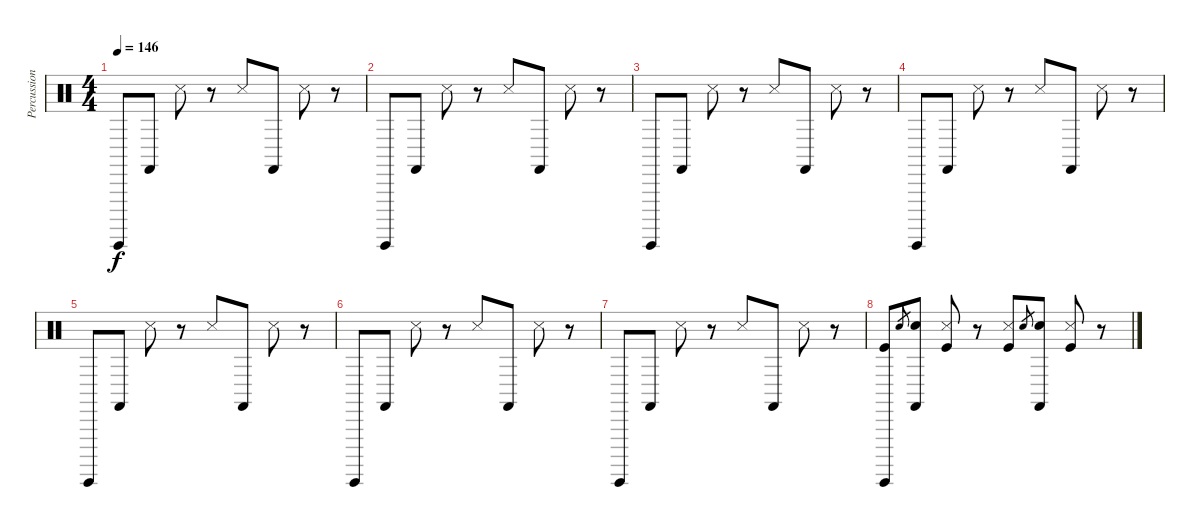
\track ("Percussion" "Percussion") {instrument percussion}
\staff {score}
\articulation defaults
\ts (4 4)
\tempo 146
\clef neutral
\ks c "Guiro (hit)".8{dy f} "Castanets (hit)".8 "Snare (side stick) 3".8
r.8 "Snare (side stick) 3".8 "Castanets (hit)".8 "Snare (side stick) 3".8 r.8 |
"Guiro (hit)".8 "Castanets (hit)".8 "Snare (side stick) 3".8 r.8 "Snare (side stick) 3".8 "Castanets (hit)".8 "Snare (side stick) 3".8 r.8 |
"Guiro (hit)".8 "Castanets (hit)".8 "Snare (side stick) 3".8 r.8 "Snare (side stick) 3".8 "Castanets (hit)".8 "Snare (side stick) 3".8 r.8 |
"Guiro (hit)".8 "Castanets (hit)".8 "Snare (side stick) 3".8 r.8 "Snare (side stick) 3".8 "Castanets (hit)".8 "Snare (side stick) 3".8 r.8 |
"Guiro (hit)".8 "Castanets (hit)".8 "Snare (side stick) 3".8 r.8 "Snare (side stick) 3".8 "Castanets (hit)".8 "Snare (side stick) 3".8 r.8 |
"Guiro (hit)".8 "Castanets (hit)".8 "Snare (side stick) 3".8 r.8 "Snare (side stick) 3".8 "Castanets (hit)".8 "Snare (side stick) 3".8 r.8 |
"Guiro (hit)".8 "Castanets (hit)".8 "Snare (side stick) 3".8 r.8 "Snare (side stick) 3".8 "Castanets (hit)".8 "Snare (side stick) 3".8 r.8 |
("Guiro (hit)" "Kick (hit)").8 "Electric Snare (hit)".8{gr} ("Castanets (hit)" "Electric Snare (hit)").8 ("Snare (side stick) 3" "Kick (hit)").8 r.8 ("Snare (side stick) 3" "Kick (hit)").8 "Electric Snare (hit)".8{gr} ("Castanets (hit)" "Electric Snare (hit)").8 ("Snare (side stick) 3" "Kick (hit)").8 r.8
